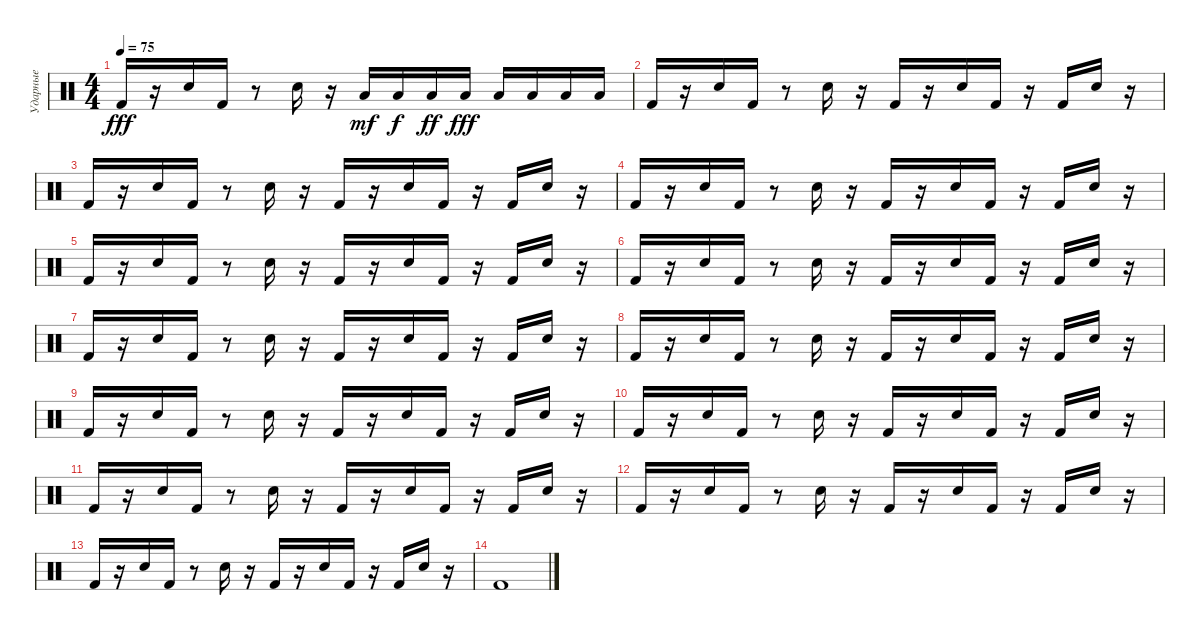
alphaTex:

\track ("Ударные" "Ударные") {instrument percussion}
\staff {score}
\articulation defaults
\ts (4 4)
\tempo 75
\clef neutral
\ks c "Kick (hit) 2".16{dy fff}
r.16 "Snare (hit) 2".16 "Kick (hit) 2".16 r.8 "Snare (hit) 2".16 r.16 "Low Tom (hit)".16{dy mf} "Low Tom (hit)".16{dy f} "Low Tom (hit)".16{dy ff} "Low Tom (hit)".16{dy fff} "Low Tom (hit)".16 "Low Tom (hit)".16 "Low Tom (hit)".16 "Low Tom (hit)".16 |
"Kick (hit) 2".16 r.16 "Snare (hit) 2".16 "Kick (hit) 2".16 r.8 "Snare (hit) 2".16 r.16 "Kick (hit) 2".16 r.16 "Snare (hit) 2".16 "Kick (hit) 2".16 r.16 "Kick (hit) 2".16 "Snare (hit) 2".16 r.16 |
"Kick (hit) 2".16 r.16 "Snare (hit) 2".16 "Kick (hit) 2".16 r.8 "Snare (hit) 2".16 r.16 "Kick (hit) 2".16 r.16 "Snare (hit) 2".16 "Kick (hit) 2".16 r.16 "Kick (hit) 2".16 "Snare (hit) 2".16 r.16 |
"Kick (hit) 2".16 r.16 "Snare (hit) 2".16 "Kick (hit) 2".16 r.8 "Snare (hit) 2".16 r.16 "Kick (hit) 2".16 r.16 "Snare (hit) 2".16 "Kick (hit) 2".16 r.16 "Kick (hit) 2".16 "Snare (hit) 2".16 r.16 |
"Kick (hit) 2".16 r.16 "Snare (hit) 2".16 "Kick (hit) 2".16 r.8 "Snare (hit) 2".16 r.16 "Kick (hit) 2".16 r.16 "Snare (hit) 2".16 "Kick (hit) 2".16 r.16 "Kick (hit) 2".16 "Snare (hit) 2".16 r.16 |
"Kick (hit) 2".16 r.16 "Snare (hit) 2".16 "Kick (hit) 2".16 r.8 "Snare (hit) 2".16 r.16 "Kick (hit) 2".16 r.16 "Snare (hit) 2".16 "Kick (hit) 2".16 r.16 "Kick (hit) 2".16 "Snare (hit) 2".16 r.16 |
"Kick (hit) 2".16 r.16 "Snare (hit) 2".16 "Kick (hit) 2".16 r.8 "Snare (hit) 2".16 r.16 "Kick (hit) 2".16 r.16 "Snare (hit) 2".16 "Kick (hit) 2".16 r.16 "Kick (hit) 2".16 "Snare (hit) 2".16 r.16 |
"Kick (hit) 2".16 r.16 "Snare (hit) 2".16 "Kick (hit) 2".16 r.8 "Snare (hit) 2".16 r.16 "Kick (hit) 2".16 r.16 "Snare (hit) 2".16 "Kick (hit) 2".16 r.16 "Kick (hit) 2".16 "Snare (hit) 2".16 r.16 |
"Kick (hit) 2".16 r.16 "Snare (hit) 2".16 "Kick (hit) 2".16 r.8 "Snare (hit) 2".16 r.16 "Kick (hit) 2".16 r.16 "Snare (hit) 2".16 "Kick (hit) 2".16 r.16 "Kick (hit) 2".16 "Snare (hit) 2".16 r.16 |
"Kick (hit) 2".16 r.16 "Snare (hit) 2".16 "Kick (hit) 2".16 r.8 "Snare (hit) 2".16 r.16 "Kick (hit) 2".16 r.16 "Snare (hit) 2".16 "Kick (hit) 2".16 r.16 "Kick (hit) 2".16 "Snare (hit) 2".16 r.16 |
"Kick (hit) 2".16 r.16 "Snare (hit) 2".16 "Kick (hit) 2".16 r.8 "Snare (hit) 2".16 r.16 "Kick (hit) 2".16 r.16 "Snare (hit) 2".16 "Kick (hit) 2".16 r.16 "Kick (hit) 2".16 "Snare (hit) 2".16 r.16 |
"Kick (hit) 2".16 r.16 "Snare (hit) 2".16 "Kick (hit) 2".16 r.8 "Snare (hit) 2".16 r.16 "Kick (hit) 2".16 r.16 "Snare (hit) 2".16 "Kick (hit) 2".16 r.16 "Kick (hit) 2".16 "Snare (hit) 2".16 r.16 |
"Kick (hit) 2".16 r.16 "Snare (hit) 2".16 "Kick (hit) 2".16 r.8 "Snare (hit) 2".16 r.16 "Kick (hit) 2".16 r.16 "Snare (hit) 2".16 "Kick (hit) 2".16 r.16 "Kick (hit) 2".16 "Snare (hit) 2".16 r.16 |
"Kick (hit) 2".1
